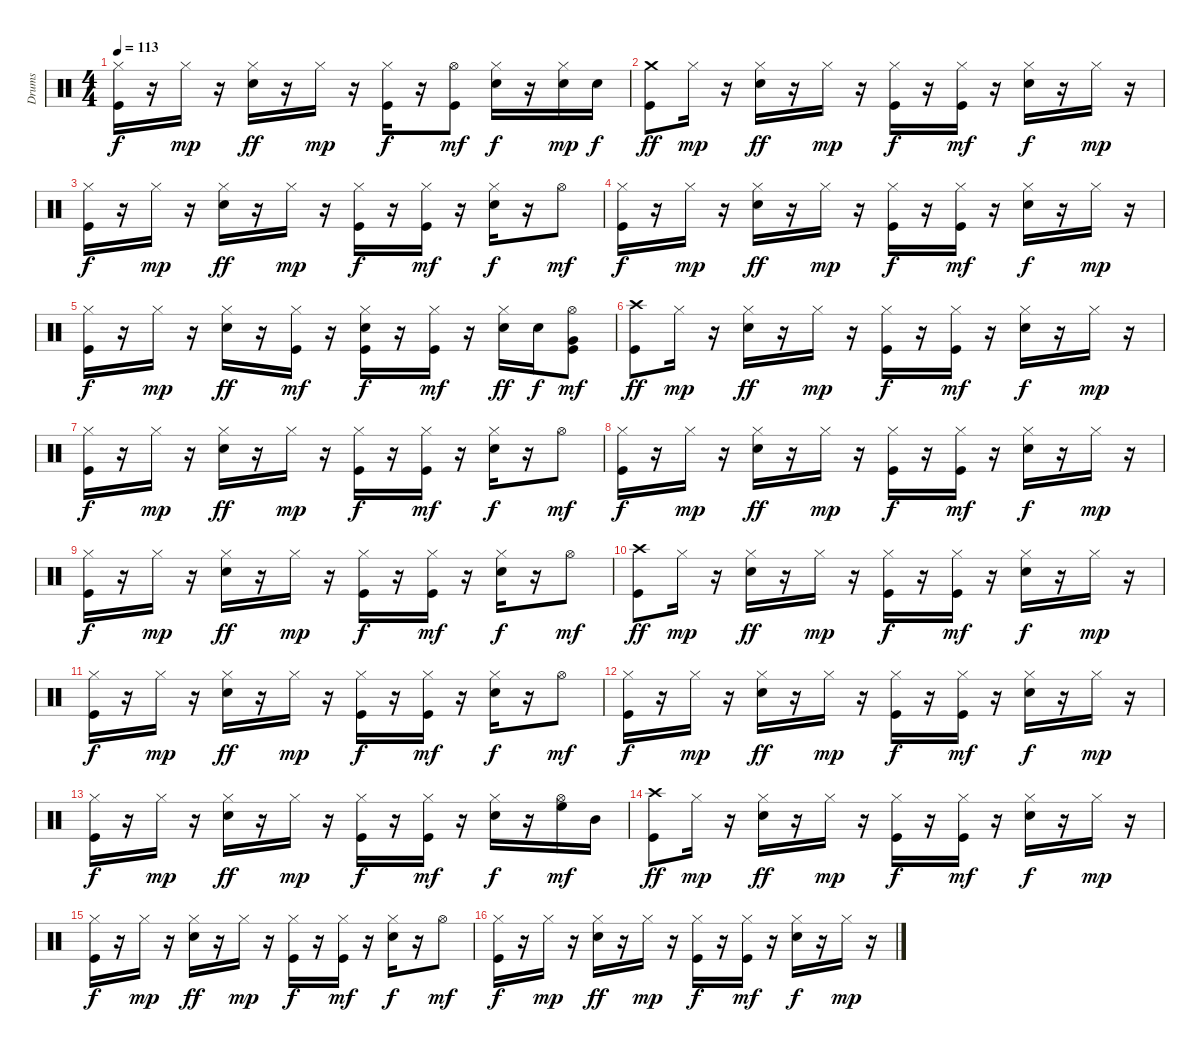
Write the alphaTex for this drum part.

\track ("Drums" "Drums") {instrument percussion}
\staff {score}
\articulation defaults
\ts (4 4)
\tempo 113
\clef neutral
\ks c
("Hi-Hat (closed)" "Kick (hit)").16{dy f} r.16 "Hi-Hat (closed)".16{dy mp} r.16 ("Electric Snare (hit)" "Hi-Hat (closed)").16{dy ff} r.16 "Hi-Hat (closed)".16{dy mp} r.16 ("Hi-Hat (closed)" "Kick (hit)").16{dy f} r.16 ("Hi-Hat (open)" "Kick (hit)").8{dy mf} ("Electric Snare (hit)" "Hi-Hat (closed)").16{dy f} r.16 ("Electric Snare (hit)" "Hi-Hat (closed)").16{dy mp} "Electric Snare (hit)".16{dy f} |
("Crash medium (hit)" "Kick (hit)").8{dy ff} "Hi-Hat (closed)".16{dy mp} r.16 ("Electric Snare (hit)" "Hi-Hat (closed)").16{dy ff} r.16 "Hi-Hat (closed)".16{dy mp} r.16 ("Hi-Hat (closed)" "Kick (hit)").16{dy f} r.16 ("Hi-Hat (closed)" "Kick (hit)").16{dy mf} r.16 ("Electric Snare (hit)" "Hi-Hat (closed)").16{dy f} r.16 "Hi-Hat (closed)".16{dy mp} r.16 |
("Hi-Hat (closed)" "Kick (hit)").16{dy f} r.16 "Hi-Hat (closed)".16{dy mp} r.16 ("Electric Snare (hit)" "Hi-Hat (closed)").16{dy ff} r.16 "Hi-Hat (closed)".16{dy mp} r.16 ("Hi-Hat (closed)" "Kick (hit)").16{dy f} r.16 ("Hi-Hat (closed)" "Kick (hit)").16{dy mf} r.16 ("Electric Snare (hit)" "Hi-Hat (closed)").16{dy f} r.16 "Hi-Hat (open)".8{dy mf} |
("Hi-Hat (closed)" "Kick (hit)").16{dy f} r.16 "Hi-Hat (closed)".16{dy mp} r.16 ("Electric Snare (hit)" "Hi-Hat (closed)").16{dy ff} r.16 "Hi-Hat (closed)".16{dy mp} r.16 ("Hi-Hat (closed)" "Kick (hit)").16{dy f} r.16 ("Hi-Hat (closed)" "Kick (hit)").16{dy mf} r.16 ("Electric Snare (hit)" "Hi-Hat (closed)").16{dy f} r.16 "Hi-Hat (closed)".16{dy mp} r.16 |
("Hi-Hat (closed)" "Kick (hit)").16{dy f} r.16 "Hi-Hat (closed)".16{dy mp} r.16 ("Electric Snare (hit)" "Hi-Hat (closed)").16{dy ff} r.16 ("Hi-Hat (closed)" "Kick (hit)").16{dy mf} r.16 ("Electric Snare (hit)" "Hi-Hat (closed)" "Kick (hit)").16{dy f} r.16 ("Hi-Hat (closed)" "Kick (hit)").16{dy mf} r.16 ("Electric Snare (hit)" "Hi-Hat (closed)").16{dy ff} "Electric Snare (hit)".16{dy f} ("Very Low Tom (hit)" "Hi-Hat (open)" "Kick (hit)").8{dy mf} |
("Crash high (hit)" "Kick (hit)").8{dy ff} "Hi-Hat (closed)".16{dy mp} r.16 ("Electric Snare (hit)" "Hi-Hat (closed)").16{dy ff} r.16 "Hi-Hat (closed)".16{dy mp} r.16 ("Hi-Hat (closed)" "Kick (hit)").16{dy f} r.16 ("Hi-Hat (closed)" "Kick (hit)").16{dy mf} r.16 ("Electric Snare (hit)" "Hi-Hat (closed)").16{dy f} r.16 "Hi-Hat (closed)".16{dy mp} r.16 |
("Hi-Hat (closed)" "Kick (hit)").16{dy f} r.16 "Hi-Hat (closed)".16{dy mp} r.16 ("Electric Snare (hit)" "Hi-Hat (closed)").16{dy ff} r.16 "Hi-Hat (closed)".16{dy mp} r.16 ("Hi-Hat (closed)" "Kick (hit)").16{dy f} r.16 ("Hi-Hat (closed)" "Kick (hit)").16{dy mf} r.16 ("Electric Snare (hit)" "Hi-Hat (closed)").16{dy f} r.16 "Hi-Hat (open)".8{dy mf} |
("Hi-Hat (closed)" "Kick (hit)").16{dy f} r.16 "Hi-Hat (closed)".16{dy mp} r.16 ("Electric Snare (hit)" "Hi-Hat (closed)").16{dy ff} r.16 "Hi-Hat (closed)".16{dy mp} r.16 ("Hi-Hat (closed)" "Kick (hit)").16{dy f} r.16 ("Hi-Hat (closed)" "Kick (hit)").16{dy mf} r.16 ("Electric Snare (hit)" "Hi-Hat (closed)").16{dy f} r.16 "Hi-Hat (closed)".16{dy mp} r.16 |
("Hi-Hat (closed)" "Kick (hit)").16{dy f} r.16 "Hi-Hat (closed)".16{dy mp} r.16 ("Electric Snare (hit)" "Hi-Hat (closed)").16{dy ff} r.16 "Hi-Hat (closed)".16{dy mp} r.16 ("Hi-Hat (closed)" "Kick (hit)").16{dy f} r.16 ("Hi-Hat (closed)" "Kick (hit)").16{dy mf} r.16 ("Electric Snare (hit)" "Hi-Hat (closed)").16{dy f} r.16 "Hi-Hat (open)".8{dy mf} |
("Crash high (hit)" "Kick (hit)").8{dy ff} "Hi-Hat (closed)".16{dy mp} r.16 ("Electric Snare (hit)" "Hi-Hat (closed)").16{dy ff} r.16 "Hi-Hat (closed)".16{dy mp} r.16 ("Hi-Hat (closed)" "Kick (hit)").16{dy f} r.16 ("Hi-Hat (closed)" "Kick (hit)").16{dy mf} r.16 ("Electric Snare (hit)" "Hi-Hat (closed)").16{dy f} r.16 "Hi-Hat (closed)".16{dy mp} r.16 |
("Hi-Hat (closed)" "Kick (hit)").16{dy f} r.16 "Hi-Hat (closed)".16{dy mp} r.16 ("Electric Snare (hit)" "Hi-Hat (closed)").16{dy ff} r.16 "Hi-Hat (closed)".16{dy mp} r.16 ("Hi-Hat (closed)" "Kick (hit)").16{dy f} r.16 ("Hi-Hat (closed)" "Kick (hit)").16{dy mf} r.16 ("Electric Snare (hit)" "Hi-Hat (closed)").16{dy f} r.16 "Hi-Hat (open)".8{dy mf} |
("Hi-Hat (closed)" "Kick (hit)").16{dy f} r.16 "Hi-Hat (closed)".16{dy mp} r.16 ("Electric Snare (hit)" "Hi-Hat (closed)").16{dy ff} r.16 "Hi-Hat (closed)".16{dy mp} r.16 ("Hi-Hat (closed)" "Kick (hit)").16{dy f} r.16 ("Hi-Hat (closed)" "Kick (hit)").16{dy mf} r.16 ("Electric Snare (hit)" "Hi-Hat (closed)").16{dy f} r.16 "Hi-Hat (closed)".16{dy mp} r.16 |
("Hi-Hat (closed)" "Kick (hit)").16{dy f} r.16 "Hi-Hat (closed)".16{dy mp} r.16 ("Electric Snare (hit)" "Hi-Hat (closed)").16{dy ff} r.16 "Hi-Hat (closed)".16{dy mp} r.16 ("Hi-Hat (closed)" "Kick (hit)").16{dy f} r.16 ("Hi-Hat (closed)" "Kick (hit)").16{dy mf} r.16 ("Electric Snare (hit)" "Hi-Hat (closed)").16{dy f} r.16 ("Hi-Hat (open)" "High Floor Tom (hit)").16{dy mf} "Mid Tom (hit)".16 |
("Crash high (hit)" "Kick (hit)").8{dy ff} "Hi-Hat (closed)".16{dy mp} r.16 ("Electric Snare (hit)" "Hi-Hat (closed)").16{dy ff} r.16 "Hi-Hat (closed)".16{dy mp} r.16 ("Hi-Hat (closed)" "Kick (hit)").16{dy f} r.16 ("Hi-Hat (closed)" "Kick (hit)").16{dy mf} r.16 ("Electric Snare (hit)" "Hi-Hat (closed)").16{dy f} r.16 "Hi-Hat (closed)".16{dy mp} r.16 |
("Hi-Hat (closed)" "Kick (hit)").16{dy f} r.16 "Hi-Hat (closed)".16{dy mp} r.16 ("Electric Snare (hit)" "Hi-Hat (closed)").16{dy ff} r.16 "Hi-Hat (closed)".16{dy mp} r.16 ("Hi-Hat (closed)" "Kick (hit)").16{dy f} r.16 ("Hi-Hat (closed)" "Kick (hit)").16{dy mf} r.16 ("Electric Snare (hit)" "Hi-Hat (closed)").16{dy f} r.16 "Hi-Hat (open)".8{dy mf} |
("Hi-Hat (closed)" "Kick (hit)").16{dy f} r.16 "Hi-Hat (closed)".16{dy mp} r.16 ("Electric Snare (hit)" "Hi-Hat (closed)").16{dy ff} r.16 "Hi-Hat (closed)".16{dy mp} r.16 ("Hi-Hat (closed)" "Kick (hit)").16{dy f} r.16 ("Hi-Hat (closed)" "Kick (hit)").16{dy mf} r.16 ("Electric Snare (hit)" "Hi-Hat (closed)").16{dy f} r.16 "Hi-Hat (closed)".16{dy mp} r.16
